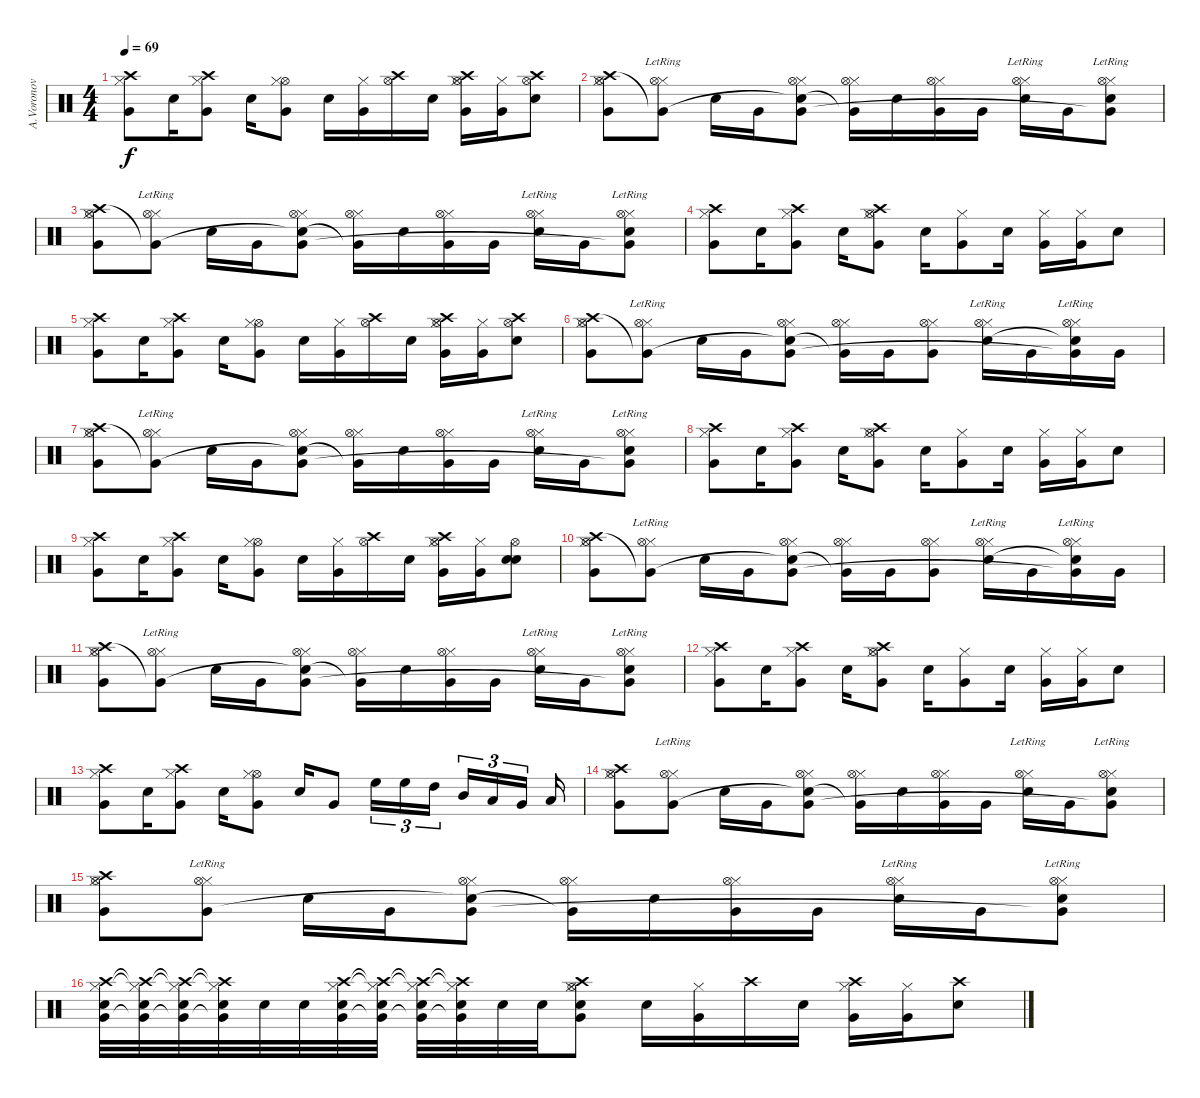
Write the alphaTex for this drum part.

\track ("A.Voronov - Drumzzz" "A.Voronov ") {instrument percussion}
\staff {score}
\articulation defaults
\ts (4 4)
\tempo 69
\clef neutral
\ks c
("Crash high (hit)" "Hi-Hat (closed)" "Very Low Tom (hit)").8{dy f} "Electric Snare (hit)".16 ("Crash high (hit)" "Hi-Hat (closed)" "Very Low Tom (hit)").8 "Electric Snare (hit)".16 ("Hi-Hat (open)" "Hi-Hat (closed)" "Very Low Tom (hit)").8 "Electric Snare (hit)".16 ("Hi-Hat (closed)" "Very Low Tom (hit)").16 ("Crash high (hit)" "Hi-Hat (open)").16 "Electric Snare (hit)".16 ("Crash high (hit)" "Hi-Hat (open)" "Hi-Hat (closed)" "Very Low Tom (hit)").16 ("Hi-Hat (closed)" "Very Low Tom (hit)").16 ("Crash high (hit)" "Hi-Hat (open)" "Electric Snare (hit)").8 |
("Hi-Hat (open)" "Hi-Hat (closed)" "Crash high (hit)" "Very Low Tom (hit)").8 ("Hi-Hat (closed)"{lr} "Hi-Hat (open)"{lr} "Very Low Tom (hit)"{t}).8 "Electric Snare (hit)".16 "Very Low Tom (hit)".16 ("Hi-Hat (closed)" "Hi-Hat (open)" "Electric Snare (hit)"{t} "Very Low Tom (hit)").8 ("Hi-Hat (closed)" "Hi-Hat (open)" "Very Low Tom (hit)"{t}).16 "Electric Snare (hit)".16 ("Hi-Hat (closed)" "Hi-Hat (open)" "Very Low Tom (hit)").16 "Very Low Tom (hit)".16 ("Hi-Hat (closed)"{lr} "Hi-Hat (open)"{lr} "Electric Snare (hit)").16 "Very Low Tom (hit)".16 ("Hi-Hat (closed)"{lr} "Hi-Hat (open)"{lr} "Electric Snare (hit)" "Very Low Tom (hit)"{t}).8 |
("Hi-Hat (open)" "Hi-Hat (closed)" "Crash high (hit)" "Very Low Tom (hit)").8 ("Hi-Hat (closed)"{lr} "Hi-Hat (open)"{lr} "Very Low Tom (hit)"{t}).8 "Electric Snare (hit)".16 "Very Low Tom (hit)".16 ("Hi-Hat (closed)" "Hi-Hat (open)" "Electric Snare (hit)"{t} "Very Low Tom (hit)").8 ("Hi-Hat (closed)" "Hi-Hat (open)" "Very Low Tom (hit)"{t}).16 "Electric Snare (hit)".16 ("Hi-Hat (closed)" "Hi-Hat (open)" "Very Low Tom (hit)").16 "Very Low Tom (hit)".16 ("Hi-Hat (closed)"{lr} "Hi-Hat (open)"{lr} "Electric Snare (hit)").16 "Very Low Tom (hit)".16 ("Hi-Hat (closed)"{lr} "Hi-Hat (open)"{lr} "Electric Snare (hit)" "Very Low Tom (hit)"{t}).8 |
("Crash high (hit)" "Hi-Hat (closed)" "Very Low Tom (hit)").8 "Electric Snare (hit)".16 ("Crash high (hit)" "Hi-Hat (closed)" "Very Low Tom (hit)").8 "Electric Snare (hit)".16 ("Crash high (hit)" "Hi-Hat (open)" "Hi-Hat (closed)" "Very Low Tom (hit)").8 "Electric Snare (hit)".16 ("Hi-Hat (closed)" "Very Low Tom (hit)").8 "Electric Snare (hit)".16 ("Hi-Hat (closed)" "Very Low Tom (hit)").16 ("Hi-Hat (closed)" "Very Low Tom (hit)").16 "Electric Snare (hit)".8 |
("Crash high (hit)" "Hi-Hat (closed)" "Very Low Tom (hit)").8 "Electric Snare (hit)".16 ("Crash high (hit)" "Hi-Hat (closed)" "Very Low Tom (hit)").8 "Electric Snare (hit)".16 ("Hi-Hat (open)" "Hi-Hat (closed)" "Very Low Tom (hit)").8 "Electric Snare (hit)".16 ("Hi-Hat (closed)" "Very Low Tom (hit)").16 ("Crash high (hit)" "Hi-Hat (open)").16 "Electric Snare (hit)".16 ("Crash high (hit)" "Hi-Hat (open)" "Hi-Hat (closed)" "Very Low Tom (hit)").16 ("Hi-Hat (closed)" "Very Low Tom (hit)").16 ("Crash high (hit)" "Hi-Hat (open)" "Electric Snare (hit)").8 |
("Hi-Hat (open)" "Hi-Hat (closed)" "Crash high (hit)" "Very Low Tom (hit)").8 ("Hi-Hat (closed)"{lr} "Hi-Hat (open)"{lr} "Very Low Tom (hit)"{t}).8 "Electric Snare (hit)".16 "Very Low Tom (hit)".16 ("Hi-Hat (closed)" "Hi-Hat (open)" "Electric Snare (hit)"{t} "Very Low Tom (hit)").8 ("Hi-Hat (closed)" "Hi-Hat (open)" "Very Low Tom (hit)"{t}).16 "Very Low Tom (hit)".16 ("Hi-Hat (closed)" "Hi-Hat (open)" "Very Low Tom (hit)").8 ("Hi-Hat (closed)"{lr} "Hi-Hat (open)"{lr} "Electric Snare (hit)").16 "Very Low Tom (hit)".16 ("Hi-Hat (closed)"{lr} "Hi-Hat (open)"{lr} "Electric Snare (hit)"{t} "Very Low Tom (hit)"{t}).16 "Very Low Tom (hit)".16 |
("Hi-Hat (open)" "Hi-Hat (closed)" "Crash high (hit)" "Very Low Tom (hit)").8 ("Hi-Hat (closed)"{lr} "Hi-Hat (open)"{lr} "Very Low Tom (hit)"{t}).8 "Electric Snare (hit)".16 "Very Low Tom (hit)".16 ("Hi-Hat (closed)" "Hi-Hat (open)" "Electric Snare (hit)"{t} "Very Low Tom (hit)").8 ("Hi-Hat (closed)" "Hi-Hat (open)" "Very Low Tom (hit)"{t}).16 "Electric Snare (hit)".16 ("Hi-Hat (closed)" "Hi-Hat (open)" "Very Low Tom (hit)").16 "Very Low Tom (hit)".16 ("Hi-Hat (closed)"{lr} "Hi-Hat (open)"{lr} "Electric Snare (hit)").16 "Very Low Tom (hit)".16 ("Hi-Hat (closed)"{lr} "Hi-Hat (open)"{lr} "Electric Snare (hit)" "Very Low Tom (hit)"{t}).8 |
("Crash high (hit)" "Hi-Hat (closed)" "Very Low Tom (hit)").8 "Electric Snare (hit)".16 ("Crash high (hit)" "Hi-Hat (closed)" "Very Low Tom (hit)").8 "Electric Snare (hit)".16 ("Crash high (hit)" "Hi-Hat (open)" "Hi-Hat (closed)" "Very Low Tom (hit)").8 "Electric Snare (hit)".16 ("Hi-Hat (closed)" "Very Low Tom (hit)").8 "Electric Snare (hit)".16 ("Hi-Hat (closed)" "Very Low Tom (hit)").16 ("Hi-Hat (closed)" "Very Low Tom (hit)").16 "Electric Snare (hit)".8 |
("Crash high (hit)" "Hi-Hat (closed)" "Very Low Tom (hit)").8 "Electric Snare (hit)".16 ("Crash high (hit)" "Hi-Hat (closed)" "Very Low Tom (hit)").8 "Electric Snare (hit)".16 ("Hi-Hat (open)" "Hi-Hat (closed)" "Very Low Tom (hit)").8 "Electric Snare (hit)".16 ("Hi-Hat (closed)" "Very Low Tom (hit)").16 ("Crash high (hit)" "Hi-Hat (open)").16 "Electric Snare (hit)".16 ("Crash high (hit)" "Hi-Hat (open)" "Hi-Hat (closed)" "Very Low Tom (hit)").16 ("Hi-Hat (closed)" "Very Low Tom (hit)").16 ("Hi-Hat (open)" "Electric Snare (hit)" "Electric Snare (hit)").8 |
("Hi-Hat (open)" "Hi-Hat (closed)" "Crash high (hit)" "Very Low Tom (hit)").8 ("Hi-Hat (closed)"{lr} "Hi-Hat (open)"{lr} "Very Low Tom (hit)"{t}).8 "Electric Snare (hit)".16 "Very Low Tom (hit)".16 ("Hi-Hat (closed)" "Hi-Hat (open)" "Electric Snare (hit)"{t} "Very Low Tom (hit)").8 ("Hi-Hat (closed)" "Hi-Hat (open)" "Very Low Tom (hit)"{t}).16 "Very Low Tom (hit)".16 ("Hi-Hat (closed)" "Hi-Hat (open)" "Very Low Tom (hit)").8 ("Hi-Hat (closed)"{lr} "Hi-Hat (open)"{lr} "Electric Snare (hit)").16 "Very Low Tom (hit)".16 ("Hi-Hat (closed)"{lr} "Hi-Hat (open)"{lr} "Electric Snare (hit)"{t} "Very Low Tom (hit)"{t}).16 "Very Low Tom (hit)".16 |
("Hi-Hat (open)" "Hi-Hat (closed)" "Crash high (hit)" "Very Low Tom (hit)").8 ("Hi-Hat (closed)"{lr} "Hi-Hat (open)"{lr} "Very Low Tom (hit)"{t}).8 "Electric Snare (hit)".16 "Very Low Tom (hit)".16 ("Hi-Hat (closed)" "Hi-Hat (open)" "Electric Snare (hit)"{t} "Very Low Tom (hit)").8 ("Hi-Hat (closed)" "Hi-Hat (open)" "Very Low Tom (hit)"{t}).16 "Electric Snare (hit)".16 ("Hi-Hat (closed)" "Hi-Hat (open)" "Very Low Tom (hit)").16 "Very Low Tom (hit)".16 ("Hi-Hat (closed)"{lr} "Hi-Hat (open)"{lr} "Electric Snare (hit)").16 "Very Low Tom (hit)".16 ("Hi-Hat (closed)"{lr} "Hi-Hat (open)"{lr} "Electric Snare (hit)" "Very Low Tom (hit)"{t}).8 |
("Crash high (hit)" "Hi-Hat (closed)" "Very Low Tom (hit)").8 "Electric Snare (hit)".16 ("Crash high (hit)" "Hi-Hat (closed)" "Very Low Tom (hit)").8 "Electric Snare (hit)".16 ("Crash high (hit)" "Hi-Hat (open)" "Hi-Hat (closed)" "Very Low Tom (hit)").8 "Electric Snare (hit)".16 ("Hi-Hat (closed)" "Very Low Tom (hit)").8 "Electric Snare (hit)".16 ("Hi-Hat (closed)" "Very Low Tom (hit)").16 ("Hi-Hat (closed)" "Very Low Tom (hit)").16 "Electric Snare (hit)".8 |
("Crash high (hit)" "Hi-Hat (closed)" "Very Low Tom (hit)").8 "Electric Snare (hit)".16 ("Crash high (hit)" "Hi-Hat (closed)" "Very Low Tom (hit)").8 "Electric Snare (hit)".16 ("Hi-Hat (open)" "Hi-Hat (closed)" "Very Low Tom (hit)").8 "Electric Snare (hit)".16 "Very Low Tom (hit)".8 "High Floor Tom (hit)".16{tu (3 2)} "High Floor Tom (hit)".16{tu (3 2)} "High Tom (hit)".16{tu (3 2)} "Mid Tom (hit)".16{tu (3 2)} "Low Tom (hit)".16{tu (3 2)} "Very Low Tom (hit)".16{tu (3 2)} "Low Floor Tom (hit)".16 |
("Hi-Hat (open)" "Hi-Hat (closed)" "Crash high (hit)" "Very Low Tom (hit)").8 ("Hi-Hat (closed)"{lr} "Hi-Hat (open)"{lr} "Very Low Tom (hit)").8 "Electric Snare (hit)".16 "Very Low Tom (hit)".16 ("Hi-Hat (closed)" "Hi-Hat (open)" "Electric Snare (hit)"{t} "Very Low Tom (hit)").8 ("Hi-Hat (closed)" "Hi-Hat (open)" "Very Low Tom (hit)"{t}).16 "Electric Snare (hit)".16 ("Hi-Hat (closed)" "Hi-Hat (open)" "Very Low Tom (hit)").16 "Very Low Tom (hit)".16 ("Hi-Hat (closed)"{lr} "Hi-Hat (open)"{lr} "Electric Snare (hit)").16 "Very Low Tom (hit)".16 ("Hi-Hat (closed)"{lr} "Hi-Hat (open)"{lr} "Electric Snare (hit)" "Very Low Tom (hit)"{t}).8 |
("Hi-Hat (open)" "Hi-Hat (closed)" "Crash high (hit)" "Very Low Tom (hit)").8 ("Hi-Hat (closed)"{lr} "Hi-Hat (open)"{lr} "Very Low Tom (hit)").8 "Electric Snare (hit)".16 "Very Low Tom (hit)".16 ("Hi-Hat (closed)" "Hi-Hat (open)" "Electric Snare (hit)"{t} "Very Low Tom (hit)").8 ("Hi-Hat (closed)" "Hi-Hat (open)" "Very Low Tom (hit)"{t}).16 "Electric Snare (hit)".16 ("Hi-Hat (closed)" "Hi-Hat (open)" "Very Low Tom (hit)").16 "Very Low Tom (hit)".16 ("Hi-Hat (closed)"{lr} "Hi-Hat (open)"{lr} "Electric Snare (hit)").16 "Very Low Tom (hit)".16 ("Hi-Hat (closed)"{lr} "Hi-Hat (open)"{lr} "Electric Snare (hit)" "Very Low Tom (hit)"{t}).8 |
("Crash high (hit)" "Hi-Hat (closed)" "Electric Snare (hit)" "Very Low Tom (hit)").32{volume 10} ("Crash high (hit)"{t} "Hi-Hat (closed)"{t} "Electric Snare (hit)" "Very Low Tom (hit)"{t}).32 ("Crash high (hit)"{t} "Hi-Hat (closed)"{t} "Electric Snare (hit)" "Very Low Tom (hit)"{t}).32 ("Crash high (hit)"{t} "Hi-Hat (closed)"{t} "Electric Snare (hit)" "Very Low Tom (hit)"{t}).32 "Electric Snare (hit)".32 "Electric Snare (hit)".32 ("Crash high (hit)" "Hi-Hat (closed)" "Electric Snare (hit)" "Very Low Tom (hit)").32 ("Crash high (hit)"{t} "Hi-Hat (closed)"{t} "Electric Snare (hit)" "Very Low Tom (hit)"{t}).32 ("Crash high (hit)"{t} "Hi-Hat (closed)"{t} "Electric Snare (hit)" "Very Low Tom (hit)"{t}).32 ("Crash high (hit)"{t} "Hi-Hat (closed)"{t} "Electric Snare (hit)" "Very Low Tom (hit)"{t}).32 "Electric Snare (hit)".32 "Electric Snare (hit)".32 ("Crash high (hit)" "Hi-Hat (open)" "Hi-Hat (closed)" "Electric Snare (hit)" "Very Low Tom (hit)").8{volume 13} "Electric Snare (hit)".16 ("Hi-Hat (closed)" "Very Low Tom (hit)").16 "Crash high (hit)".16 "Electric Snare (hit)".16 ("Crash high (hit)" "Hi-Hat (closed)" "Very Low Tom (hit)").16 ("Hi-Hat (closed)" "Very Low Tom (hit)").16 ("Crash high (hit)" "Electric Snare (hit)").8
